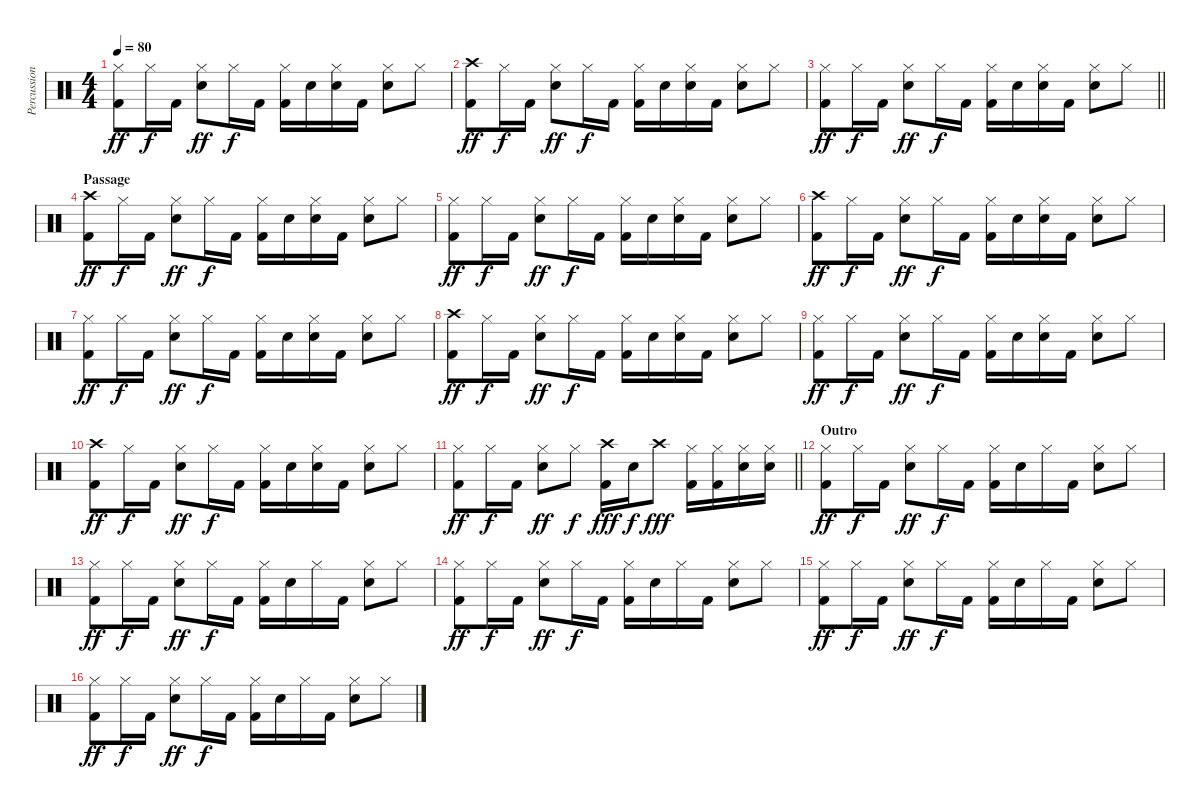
\track ("Percussion (Stieven)" "Percussion") {instrument percussion}
\staff {score}
\articulation defaults
\ts (4 4)
\tempo 80
\clef neutral
\ks c
("Hi-Hat (closed)" "Kick (hit) 2").8{dy ff} "Hi-Hat (closed)".16{dy f} "Kick (hit) 2".16 ("Hi-Hat (closed)" "Snare (hit) 2").8{dy ff} "Hi-Hat (closed)".16{dy f} "Kick (hit) 2".16 ("Hi-Hat (closed)" "Kick (hit) 2").16 "Snare (hit) 2".16 ("Hi-Hat (closed)" "Snare (hit) 2").16 "Kick (hit) 2".16 ("Hi-Hat (closed)" "Snare (hit) 2").8 "Hi-Hat (closed)".8 |
("Crash high (hit)" "Kick (hit) 2").8{dy ff} "Hi-Hat (closed)".16{dy f} "Kick (hit) 2".16 ("Hi-Hat (closed)" "Snare (hit) 2").8{dy ff} "Hi-Hat (closed)".16{dy f} "Kick (hit) 2".16 ("Hi-Hat (closed)" "Kick (hit) 2").16 "Snare (hit) 2".16 ("Hi-Hat (closed)" "Snare (hit) 2").16 "Kick (hit) 2".16 ("Hi-Hat (closed)" "Snare (hit) 2").8 "Hi-Hat (closed)".8 |
\barLineRight lightlight
("Hi-Hat (closed)" "Kick (hit) 2").8{dy ff} "Hi-Hat (closed)".16{dy f} "Kick (hit) 2".16 ("Hi-Hat (closed)" "Snare (hit) 2").8{dy ff} "Hi-Hat (closed)".16{dy f} "Kick (hit) 2".16 ("Hi-Hat (closed)" "Kick (hit) 2").16 "Snare (hit) 2".16 ("Hi-Hat (closed)" "Snare (hit) 2").16 "Kick (hit) 2".16 ("Hi-Hat (closed)" "Snare (hit) 2").8 "Hi-Hat (closed)".8 |
\section ("" "Passage")
("Crash high (hit)" "Kick (hit) 2").8{dy ff} "Hi-Hat (closed)".16{dy f} "Kick (hit) 2".16 ("Hi-Hat (closed)" "Snare (hit) 2").8{dy ff} "Hi-Hat (closed)".16{dy f} "Kick (hit) 2".16 ("Hi-Hat (closed)" "Kick (hit) 2").16 "Snare (hit) 2".16 ("Hi-Hat (closed)" "Snare (hit) 2").16 "Kick (hit) 2".16 ("Hi-Hat (closed)" "Snare (hit) 2").8 "Hi-Hat (closed)".8 |
("Hi-Hat (closed)" "Kick (hit) 2").8{dy ff} "Hi-Hat (closed)".16{dy f} "Kick (hit) 2".16 ("Hi-Hat (closed)" "Snare (hit) 2").8{dy ff} "Hi-Hat (closed)".16{dy f} "Kick (hit) 2".16 ("Hi-Hat (closed)" "Kick (hit) 2").16 "Snare (hit) 2".16 ("Hi-Hat (closed)" "Snare (hit) 2").16 "Kick (hit) 2".16 ("Hi-Hat (closed)" "Snare (hit) 2").8 "Hi-Hat (closed)".8 |
("Crash high (hit)" "Kick (hit) 2").8{dy ff} "Hi-Hat (closed)".16{dy f} "Kick (hit) 2".16 ("Hi-Hat (closed)" "Snare (hit) 2").8{dy ff} "Hi-Hat (closed)".16{dy f} "Kick (hit) 2".16 ("Hi-Hat (closed)" "Kick (hit) 2").16 "Snare (hit) 2".16 ("Hi-Hat (closed)" "Snare (hit) 2").16 "Kick (hit) 2".16 ("Hi-Hat (closed)" "Snare (hit) 2").8 "Hi-Hat (closed)".8 |
("Hi-Hat (closed)" "Kick (hit) 2").8{dy ff} "Hi-Hat (closed)".16{dy f} "Kick (hit) 2".16 ("Hi-Hat (closed)" "Snare (hit) 2").8{dy ff} "Hi-Hat (closed)".16{dy f} "Kick (hit) 2".16 ("Hi-Hat (closed)" "Kick (hit) 2").16 "Snare (hit) 2".16 ("Hi-Hat (closed)" "Snare (hit) 2").16 "Kick (hit) 2".16 ("Hi-Hat (closed)" "Snare (hit) 2").8 "Hi-Hat (closed)".8 |
("Crash high (hit)" "Kick (hit) 2").8{dy ff} "Hi-Hat (closed)".16{dy f} "Kick (hit) 2".16 ("Hi-Hat (closed)" "Snare (hit) 2").8{dy ff} "Hi-Hat (closed)".16{dy f} "Kick (hit) 2".16 ("Hi-Hat (closed)" "Kick (hit) 2").16 "Snare (hit) 2".16 ("Hi-Hat (closed)" "Snare (hit) 2").16 "Kick (hit) 2".16 ("Hi-Hat (closed)" "Snare (hit) 2").8 "Hi-Hat (closed)".8 |
("Hi-Hat (closed)" "Kick (hit) 2").8{dy ff} "Hi-Hat (closed)".16{dy f} "Kick (hit) 2".16 ("Hi-Hat (closed)" "Snare (hit) 2").8{dy ff} "Hi-Hat (closed)".16{dy f} "Kick (hit) 2".16 ("Hi-Hat (closed)" "Kick (hit) 2").16 "Snare (hit) 2".16 ("Hi-Hat (closed)" "Snare (hit) 2").16 "Kick (hit) 2".16 ("Hi-Hat (closed)" "Snare (hit) 2").8 "Hi-Hat (closed)".8 |
("Crash high (hit)" "Kick (hit) 2").8{dy ff} "Hi-Hat (closed)".16{dy f} "Kick (hit) 2".16 ("Hi-Hat (closed)" "Snare (hit) 2").8{dy ff} "Hi-Hat (closed)".16{dy f} "Kick (hit) 2".16 ("Hi-Hat (closed)" "Kick (hit) 2").16 "Snare (hit) 2".16 ("Hi-Hat (closed)" "Snare (hit) 2").16 "Kick (hit) 2".16 ("Hi-Hat (closed)" "Snare (hit) 2").8 "Hi-Hat (closed)".8 |
\barLineRight lightlight
("Hi-Hat (closed)" "Kick (hit) 2").8{dy ff} "Hi-Hat (closed)".16{dy f} "Kick (hit) 2".16 ("Hi-Hat (closed)" "Snare (hit) 2").8{dy ff} "Hi-Hat (closed)".8{dy f} ("Crash high (hit)" "Kick (hit) 2").16{dy fff} "Snare (hit) 2".16{dy f} "Crash high (hit)".8{dy fff} ("Hi-Hat (closed)" "Kick (hit) 2").16 ("Hi-Hat (closed)" "Kick (hit) 2").16 ("Hi-Hat (closed)" "Snare (hit) 2").16 ("Hi-Hat (closed)" "Snare (hit) 2").16 |
\section ("" "Outro")
("Hi-Hat (closed)" "Kick (hit) 2").8{dy ff} "Hi-Hat (closed)".16{dy f} "Kick (hit) 2".16 ("Hi-Hat (closed)" "Snare (hit) 2").8{dy ff} "Hi-Hat (closed)".16{dy f} "Kick (hit) 2".16 ("Hi-Hat (closed)" "Kick (hit) 2").16 "Snare (hit) 2".16 "Hi-Hat (closed)".16 "Kick (hit) 2".16 ("Hi-Hat (closed)" "Snare (hit) 2").8 "Hi-Hat (closed)".8 |
("Hi-Hat (closed)" "Kick (hit) 2").8{dy ff} "Hi-Hat (closed)".16{dy f} "Kick (hit) 2".16 ("Hi-Hat (closed)" "Snare (hit) 2").8{dy ff} "Hi-Hat (closed)".16{dy f} "Kick (hit) 2".16 ("Hi-Hat (closed)" "Kick (hit) 2").16 "Snare (hit) 2".16 "Hi-Hat (closed)".16 "Kick (hit) 2".16 ("Hi-Hat (closed)" "Snare (hit) 2").8 "Hi-Hat (closed)".8 |
("Hi-Hat (closed)" "Kick (hit) 2").8{dy ff} "Hi-Hat (closed)".16{dy f} "Kick (hit) 2".16 ("Hi-Hat (closed)" "Snare (hit) 2").8{dy ff} "Hi-Hat (closed)".16{dy f} "Kick (hit) 2".16 ("Hi-Hat (closed)" "Kick (hit) 2").16 "Snare (hit) 2".16 "Hi-Hat (closed)".16 "Kick (hit) 2".16 ("Hi-Hat (closed)" "Snare (hit) 2").8 "Hi-Hat (closed)".8 |
("Hi-Hat (closed)" "Kick (hit) 2").8{dy ff} "Hi-Hat (closed)".16{dy f} "Kick (hit) 2".16 ("Hi-Hat (closed)" "Snare (hit) 2").8{dy ff} "Hi-Hat (closed)".16{dy f} "Kick (hit) 2".16 ("Hi-Hat (closed)" "Kick (hit) 2").16 "Snare (hit) 2".16 "Hi-Hat (closed)".16 "Kick (hit) 2".16 ("Hi-Hat (closed)" "Snare (hit) 2").8 "Hi-Hat (closed)".8 |
("Hi-Hat (closed)" "Kick (hit) 2").8{dy ff} "Hi-Hat (closed)".16{dy f} "Kick (hit) 2".16 ("Hi-Hat (closed)" "Snare (hit) 2").8{dy ff} "Hi-Hat (closed)".16{dy f} "Kick (hit) 2".16 ("Hi-Hat (closed)" "Kick (hit) 2").16 "Snare (hit) 2".16 "Hi-Hat (closed)".16 "Kick (hit) 2".16 ("Hi-Hat (closed)" "Snare (hit) 2").8 "Hi-Hat (closed)".8
